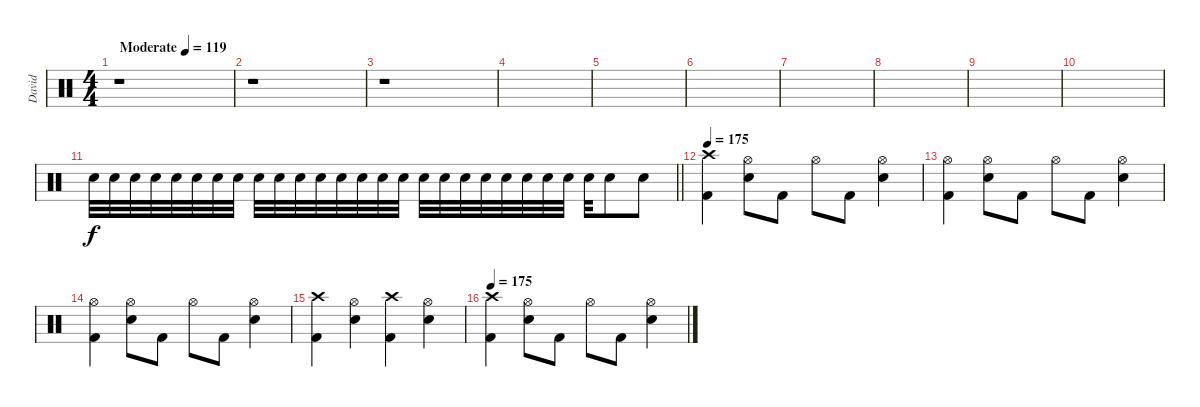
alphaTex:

\track ("David" "David") {instrument percussion}
\staff {score}
\articulation defaults
\ts (4 4)
\tempo (119 "Moderate")
\clef neutral
\ks c
r.1{dy f} |
r.1 |
r.1 |
|
|
|
|
|
|
|
\barLineRight lightlight "Snare (hit) 2".32 "Snare (hit) 2".32 "Snare (hit) 2".32 "Snare (hit) 2".32 "Snare (hit) 2".32 "Snare (hit) 2".32 "Snare (hit) 2".32 "Snare (hit) 2".32 "Snare (hit) 2".32 "Snare (hit) 2".32 "Snare (hit) 2".32 "Snare (hit) 2".32 "Snare (hit) 2".32 "Snare (hit) 2".32 "Snare (hit) 2".32 "Snare (hit) 2".32 "Snare (hit) 2".32 "Snare (hit) 2".32 "Snare (hit) 2".32 "Snare (hit) 2".32 "Snare (hit) 2".32 "Snare (hit) 2".32 "Snare (hit) 2".32 "Snare (hit) 2".32 "Snare (hit) 2".32 "Snare (hit) 2".8 "Snare (hit) 2".8
|
\tempo 175
("Crash high (hit)" "Kick (hit) 2").4 ("Hi-Hat (open)" "Snare (hit) 2").8 "Kick (hit) 2".8 "Hi-Hat (open)".8 "Kick (hit) 2".8 ("Hi-Hat (open)" "Snare (hit) 2").4 |
("Hi-Hat (open)" "Kick (hit) 2").4 ("Hi-Hat (open)" "Snare (hit) 2").8 "Kick (hit) 2".8 "Hi-Hat (open)".8 "Kick (hit) 2".8 ("Hi-Hat (open)" "Snare (hit) 2").4 |
("Hi-Hat (open)" "Kick (hit) 2").4 ("Hi-Hat (open)" "Snare (hit) 2").8 "Kick (hit) 2".8 "Hi-Hat (open)".8 "Kick (hit) 2".8 ("Hi-Hat (open)" "Snare (hit) 2").4 |
("Crash high (hit)" "Kick (hit) 2").4 ("Hi-Hat (open)" "Snare (hit) 2").4 ("Crash high (hit)" "Kick (hit) 2").4 ("Hi-Hat (open)" "Snare (hit) 2").4 |
\tempo 175
("Crash high (hit)" "Kick (hit) 2").4 ("Hi-Hat (open)" "Snare (hit) 2").8 "Kick (hit) 2".8 "Hi-Hat (open)".8 "Kick (hit) 2".8 ("Hi-Hat (open)" "Snare (hit) 2").4
